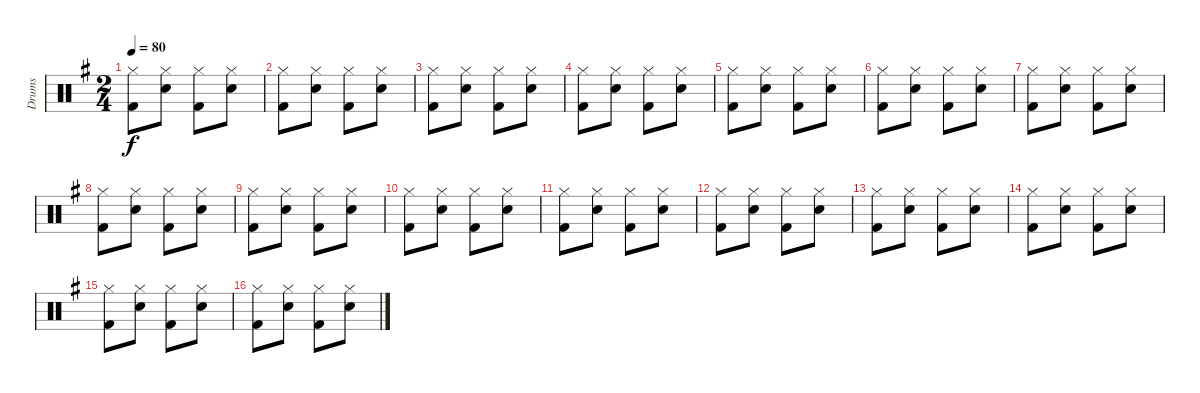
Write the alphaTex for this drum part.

\track ("Drums" "Drums") {instrument percussion}
\staff {score}
\articulation defaults
\ts (2 4)
\tempo 80
\clef neutral
\ks g
("Hi-Hat (closed)" "Kick (hit) 2").8{dy f} ("Hi-Hat (closed)" "Electric Snare (hit)").8 ("Hi-Hat (closed)" "Kick (hit) 2").8 ("Hi-Hat (closed)" "Electric Snare (hit)").8 |
("Hi-Hat (closed)" "Kick (hit) 2").8 ("Hi-Hat (closed)" "Electric Snare (hit)").8 ("Hi-Hat (closed)" "Kick (hit) 2").8 ("Hi-Hat (closed)" "Electric Snare (hit)").8 |
("Hi-Hat (closed)" "Kick (hit) 2").8 ("Hi-Hat (closed)" "Electric Snare (hit)").8 ("Hi-Hat (closed)" "Kick (hit) 2").8 ("Hi-Hat (closed)" "Electric Snare (hit)").8 |
("Hi-Hat (closed)" "Kick (hit) 2").8 ("Hi-Hat (closed)" "Electric Snare (hit)").8 ("Hi-Hat (closed)" "Kick (hit) 2").8 ("Hi-Hat (closed)" "Electric Snare (hit)").8 |
("Hi-Hat (closed)" "Kick (hit) 2").8 ("Hi-Hat (closed)" "Electric Snare (hit)").8 ("Hi-Hat (closed)" "Kick (hit) 2").8 ("Hi-Hat (closed)" "Electric Snare (hit)").8 |
("Hi-Hat (closed)" "Kick (hit) 2").8 ("Hi-Hat (closed)" "Electric Snare (hit)").8 ("Hi-Hat (closed)" "Kick (hit) 2").8 ("Hi-Hat (closed)" "Electric Snare (hit)").8 |
("Hi-Hat (closed)" "Kick (hit) 2").8 ("Hi-Hat (closed)" "Electric Snare (hit)").8 ("Hi-Hat (closed)" "Kick (hit) 2").8 ("Hi-Hat (closed)" "Electric Snare (hit)").8 |
("Hi-Hat (closed)" "Kick (hit) 2").8 ("Hi-Hat (closed)" "Electric Snare (hit)").8 ("Hi-Hat (closed)" "Kick (hit) 2").8 ("Hi-Hat (closed)" "Electric Snare (hit)").8 |
("Hi-Hat (closed)" "Kick (hit) 2").8 ("Hi-Hat (closed)" "Electric Snare (hit)").8 ("Hi-Hat (closed)" "Kick (hit) 2").8 ("Hi-Hat (closed)" "Electric Snare (hit)").8 |
("Hi-Hat (closed)" "Kick (hit) 2").8 ("Hi-Hat (closed)" "Electric Snare (hit)").8 ("Hi-Hat (closed)" "Kick (hit) 2").8 ("Hi-Hat (closed)" "Electric Snare (hit)").8 |
("Hi-Hat (closed)" "Kick (hit) 2").8 ("Hi-Hat (closed)" "Electric Snare (hit)").8 ("Hi-Hat (closed)" "Kick (hit) 2").8 ("Hi-Hat (closed)" "Electric Snare (hit)").8 |
("Hi-Hat (closed)" "Kick (hit) 2").8 ("Hi-Hat (closed)" "Electric Snare (hit)").8 ("Hi-Hat (closed)" "Kick (hit) 2").8 ("Hi-Hat (closed)" "Electric Snare (hit)").8 |
("Hi-Hat (closed)" "Kick (hit) 2").8 ("Hi-Hat (closed)" "Electric Snare (hit)").8 ("Hi-Hat (closed)" "Kick (hit) 2").8 ("Hi-Hat (closed)" "Electric Snare (hit)").8 |
("Hi-Hat (closed)" "Kick (hit) 2").8 ("Hi-Hat (closed)" "Electric Snare (hit)").8 ("Hi-Hat (closed)" "Kick (hit) 2").8 ("Hi-Hat (closed)" "Electric Snare (hit)").8 |
("Hi-Hat (closed)" "Kick (hit) 2").8 ("Hi-Hat (closed)" "Electric Snare (hit)").8 ("Hi-Hat (closed)" "Kick (hit) 2").8 ("Hi-Hat (closed)" "Electric Snare (hit)").8 |
("Hi-Hat (closed)" "Kick (hit) 2").8 ("Hi-Hat (closed)" "Electric Snare (hit)").8 ("Hi-Hat (closed)" "Kick (hit) 2").8 ("Hi-Hat (closed)" "Electric Snare (hit)").8
